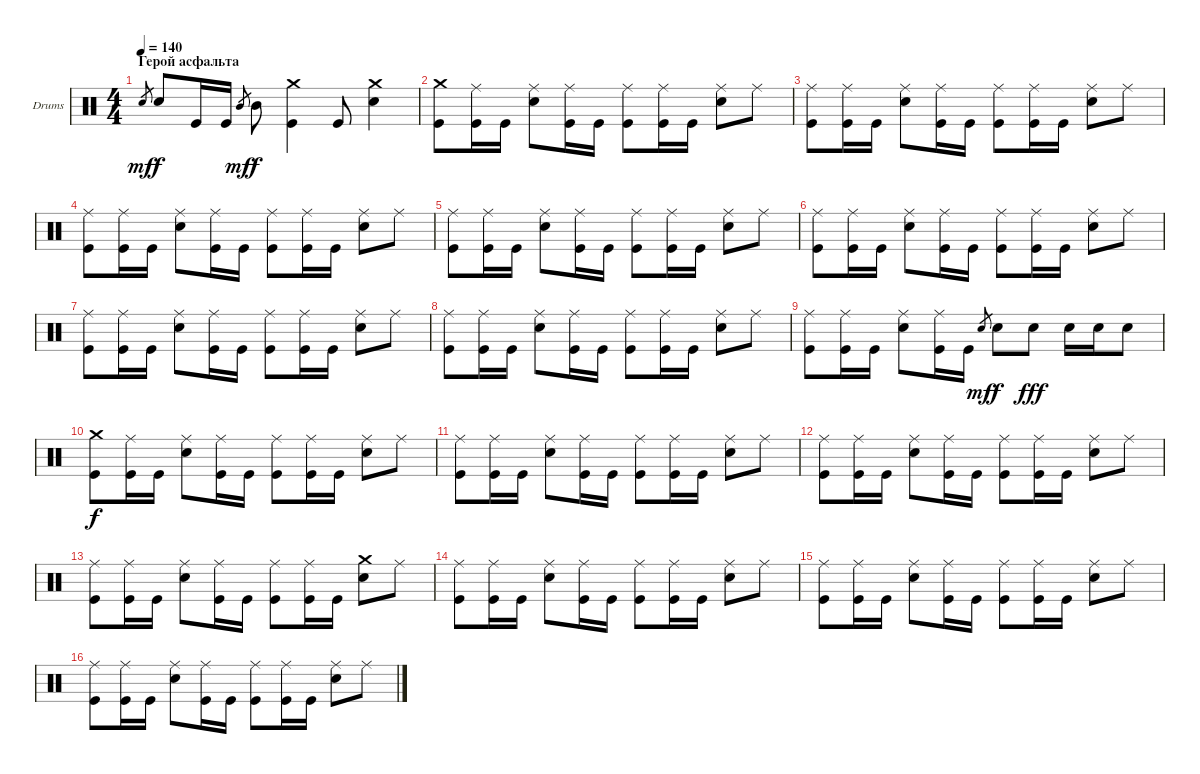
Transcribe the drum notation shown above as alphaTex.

\defaultSystemsLayout 4
\bracketExtendMode nobrackets
\firstSystemTrackNameOrientation horizontal
\otherSystemsTrackNameOrientation horizontal
\track ("Ударные" "Drums") {instrument percussion}
\staff {score}
\articulation defaults
\ts (4 4)
\section ("" "Герой асфальта")
\tempo 140
\clef neutral
\ks c "Snare (hit) 2".8{gr dy mf} "Snare (hit) 2".8{dy f} "Kick (hit)".16 "Kick (hit)".16 "Mid Tom (hit)".8{gr dy mf} "Mid Tom (hit)".8{dy f}
("Crash medium (hit)" "Kick (hit)").4 "Kick (hit)".8 ("Crash medium (hit)" "Snare (hit) 2").4 |
("Crash medium (hit)" "Kick (hit)").8 ("Ride (middle)" "Kick (hit)").16 "Kick (hit)".16 ("Ride (middle)" "Snare (hit) 2").8 ("Ride (middle)" "Kick (hit)").16 "Kick (hit)".16 ("Ride (middle)" "Kick (hit)").8 ("Ride (middle)" "Kick (hit)").16 "Kick (hit)".16 ("Ride (middle)" "Snare (hit) 2").8 "Ride (middle)".8 |
("Ride (middle)" "Kick (hit)").8 ("Ride (middle)" "Kick (hit)").16 "Kick (hit)".16 ("Ride (middle)" "Snare (hit) 2").8 ("Ride (middle)" "Kick (hit)").16 "Kick (hit)".16 ("Ride (middle)" "Kick (hit)").8 ("Ride (middle)" "Kick (hit)").16 "Kick (hit)".16 ("Ride (middle)" "Snare (hit) 2").8 "Ride (middle)".8 |
("Ride (middle)" "Kick (hit)").8 ("Ride (middle)" "Kick (hit)").16 "Kick (hit)".16 ("Ride (middle)" "Snare (hit) 2").8 ("Ride (middle)" "Kick (hit)").16 "Kick (hit)".16 ("Ride (middle)" "Kick (hit)").8 ("Ride (middle)" "Kick (hit)").16 "Kick (hit)".16 ("Ride (middle)" "Snare (hit) 2").8 "Ride (middle)".8 |
("Ride (middle)" "Kick (hit)").8 ("Ride (middle)" "Kick (hit)").16 "Kick (hit)".16 ("Ride (middle)" "Snare (hit) 2").8 ("Ride (middle)" "Kick (hit)").16 "Kick (hit)".16 ("Ride (middle)" "Kick (hit)").8 ("Ride (middle)" "Kick (hit)").16 "Kick (hit)".16 ("Ride (middle)" "Snare (hit) 2").8 "Ride (middle)".8 |
("Ride (middle)" "Kick (hit)").8 ("Ride (middle)" "Kick (hit)").16 "Kick (hit)".16 ("Ride (middle)" "Snare (hit) 2").8 ("Ride (middle)" "Kick (hit)").16 "Kick (hit)".16 ("Ride (middle)" "Kick (hit)").8 ("Ride (middle)" "Kick (hit)").16 "Kick (hit)".16 ("Ride (middle)" "Snare (hit) 2").8 "Ride (middle)".8 |
("Ride (middle)" "Kick (hit)").8 ("Ride (middle)" "Kick (hit)").16 "Kick (hit)".16 ("Ride (middle)" "Snare (hit) 2").8 ("Ride (middle)" "Kick (hit)").16 "Kick (hit)".16 ("Ride (middle)" "Kick (hit)").8 ("Ride (middle)" "Kick (hit)").16 "Kick (hit)".16 ("Ride (middle)" "Snare (hit) 2").8 "Ride (middle)".8 |
("Ride (middle)" "Kick (hit)").8 ("Ride (middle)" "Kick (hit)").16 "Kick (hit)".16 ("Ride (middle)" "Snare (hit) 2").8 ("Ride (middle)" "Kick (hit)").16 "Kick (hit)".16 ("Ride (middle)" "Kick (hit)").8 ("Ride (middle)" "Kick (hit)").16 "Kick (hit)".16 ("Ride (middle)" "Snare (hit) 2").8 "Ride (middle)".8 |
("Ride (middle)" "Kick (hit)").8 ("Ride (middle)" "Kick (hit)").16 "Kick (hit)".16 ("Ride (middle)" "Snare (hit) 2").8 ("Ride (middle)" "Kick (hit)").16 "Kick (hit)".16 "Snare (hit) 2".8{gr dy mf} "Snare (hit) 2".8{dy f} "Snare (hit) 2".8{dy fff} "Snare (hit) 2".16 "Snare (hit) 2".16 "Snare (hit) 2".8 |
("Crash medium (hit)" "Kick (hit)").8{dy f} ("Ride (middle)" "Kick (hit)").16 "Kick (hit)".16 ("Ride (middle)" "Snare (hit) 2").8 ("Ride (middle)" "Kick (hit)").16 "Kick (hit)".16 ("Ride (middle)" "Kick (hit)").8 ("Ride (middle)" "Kick (hit)").16 "Kick (hit)".16 ("Ride (middle)" "Snare (hit) 2").8 "Ride (middle)".8 |
("Ride (middle)" "Kick (hit)").8 ("Ride (middle)" "Kick (hit)").16 "Kick (hit)".16 ("Ride (middle)" "Snare (hit) 2").8 ("Ride (middle)" "Kick (hit)").16 "Kick (hit)".16 ("Ride (middle)" "Kick (hit)").8 ("Ride (middle)" "Kick (hit)").16 "Kick (hit)".16 ("Ride (middle)" "Snare (hit) 2").8 "Ride (middle)".8 |
("Ride (middle)" "Kick (hit)").8 ("Ride (middle)" "Kick (hit)").16 "Kick (hit)".16 ("Ride (middle)" "Snare (hit) 2").8 ("Ride (middle)" "Kick (hit)").16 "Kick (hit)".16 ("Ride (middle)" "Kick (hit)").8 ("Ride (middle)" "Kick (hit)").16 "Kick (hit)".16 ("Ride (middle)" "Snare (hit) 2").8 "Ride (middle)".8 |
("Ride (middle)" "Kick (hit)").8 ("Ride (middle)" "Kick (hit)").16 "Kick (hit)".16 ("Ride (middle)" "Snare (hit) 2").8 ("Ride (middle)" "Kick (hit)").16 "Kick (hit)".16 ("Ride (middle)" "Kick (hit)").8 ("Ride (middle)" "Kick (hit)").16 "Kick (hit)".16 ("Crash medium (hit)" "Snare (hit) 2").8 "Ride (middle)".8 |
("Ride (middle)" "Kick (hit)").8 ("Ride (middle)" "Kick (hit)").16 "Kick (hit)".16 ("Ride (middle)" "Snare (hit) 2").8 ("Ride (middle)" "Kick (hit)").16 "Kick (hit)".16 ("Ride (middle)" "Kick (hit)").8 ("Ride (middle)" "Kick (hit)").16 "Kick (hit)".16 ("Ride (middle)" "Snare (hit) 2").8 "Ride (middle)".8 |
("Ride (middle)" "Kick (hit)").8 ("Ride (middle)" "Kick (hit)").16 "Kick (hit)".16 ("Ride (middle)" "Snare (hit) 2").8 ("Ride (middle)" "Kick (hit)").16 "Kick (hit)".16 ("Ride (middle)" "Kick (hit)").8 ("Ride (middle)" "Kick (hit)").16 "Kick (hit)".16 ("Ride (middle)" "Snare (hit) 2").8 "Ride (middle)".8 |
("Ride (middle)" "Kick (hit)").8 ("Ride (middle)" "Kick (hit)").16 "Kick (hit)".16 ("Ride (middle)" "Snare (hit) 2").8 ("Ride (middle)" "Kick (hit)").16 "Kick (hit)".16 ("Ride (middle)" "Kick (hit)").8 ("Ride (middle)" "Kick (hit)").16 "Kick (hit)".16 ("Ride (middle)" "Snare (hit) 2").8 "Ride (middle)".8
